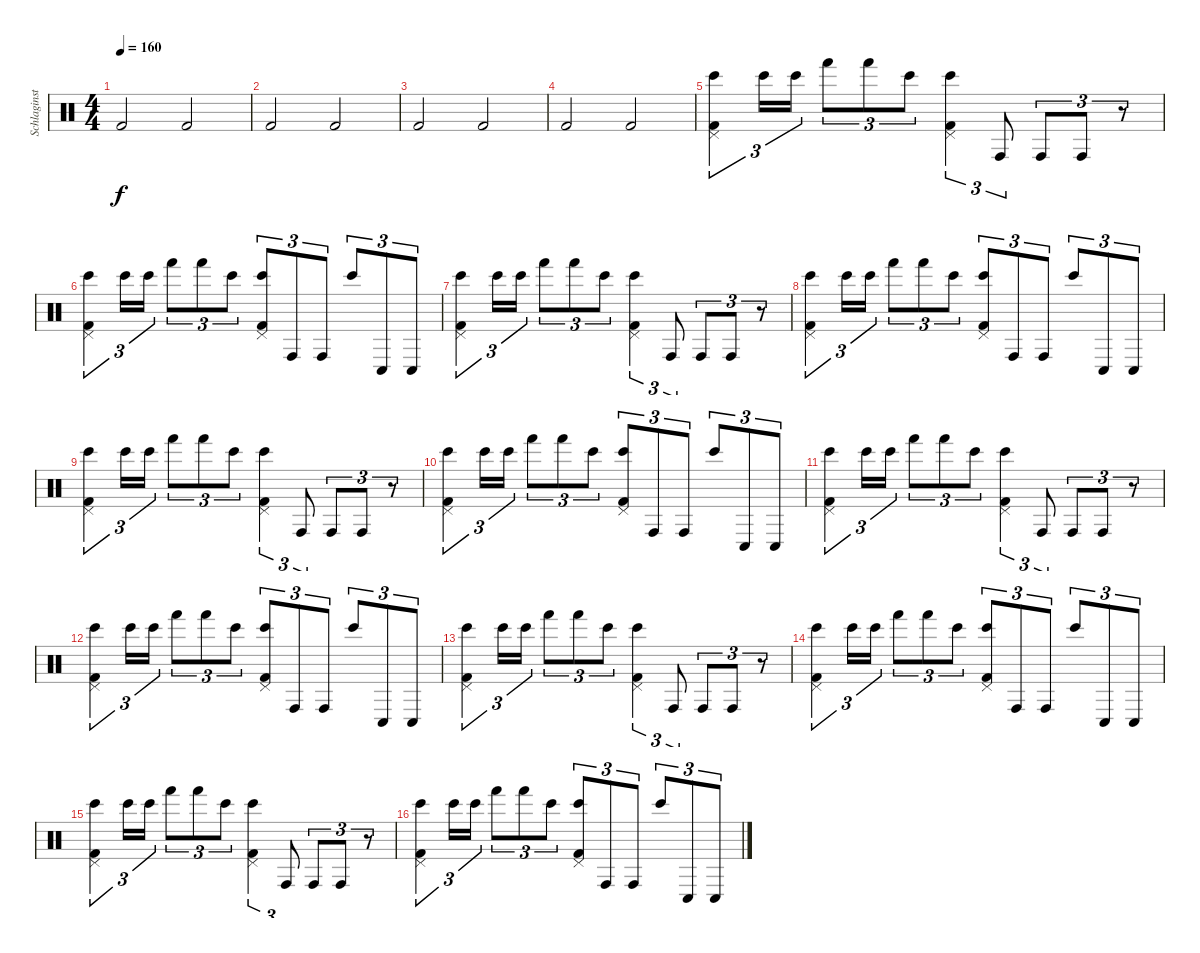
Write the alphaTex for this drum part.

\track ("Schlaginstrumente - Auswahl" "Schlaginst") {instrument percussion}
\staff {score}
\articulation defaults
\ts (4 4)
\tempo 160
\clef neutral
\ks c "Kick (hit) 2".2{dy f} "Kick (hit) 2".2
|
"Kick (hit) 2".2 "Kick (hit) 2".2 |
"Kick (hit) 2".2 "Kick (hit) 2".2 |
"Kick (hit) 2".2 "Kick (hit) 2".2 |
("Pedal Hi-Hat (hit)" "Bongo High (hit)" "Kick (hit) 2").4{tu (3 2)} "Bongo High (hit)".16{tu (3 2)} "Bongo High (hit)".16{tu (3 2)} "Hand (hit)".8{tu (3 2)} "Hand (hit)".8{tu (3 2)} "Bongo High (hit)".8{tu (3 2)} ("Pedal Hi-Hat (hit)" "Bongo High (hit)" "Kick (hit) 2").4{tu (3 2)} "Conga high (hit)".8{tu (3 2)} "Conga high (hit)".8{tu (3 2)} "Conga high (hit)".8{tu (3 2)} r.8{tu (3 2)} |
("Pedal Hi-Hat (hit)" "Bongo High (hit)" "Kick (hit) 2").4{tu (3 2)} "Bongo High (hit)".16{tu (3 2)} "Bongo High (hit)".16{tu (3 2)} "Hand (hit)".8{tu (3 2)} "Hand (hit)".8{tu (3 2)} "Bongo High (hit)".8{tu (3 2)} ("Pedal Hi-Hat (hit)" "Bongo High (hit)" "Kick (hit) 2").8{tu (3 2)} "Conga high (hit)".8{tu (3 2)} "Conga high (hit)".8{tu (3 2)} "Bongo High (hit)".8{tu (3 2)} "Conga low (hit)".8{tu (3 2)} "Conga low (hit)".8{tu (3 2)} |
("Pedal Hi-Hat (hit)" "Bongo High (hit)" "Kick (hit) 2").4{tu (3 2)} "Bongo High (hit)".16{tu (3 2)} "Bongo High (hit)".16{tu (3 2)} "Hand (hit)".8{tu (3 2)} "Hand (hit)".8{tu (3 2)} "Bongo High (hit)".8{tu (3 2)} ("Pedal Hi-Hat (hit)" "Bongo High (hit)" "Kick (hit) 2").4{tu (3 2)} "Conga high (hit)".8{tu (3 2)} "Conga high (hit)".8{tu (3 2)} "Conga high (hit)".8{tu (3 2)} r.8{tu (3 2)} |
("Pedal Hi-Hat (hit)" "Bongo High (hit)" "Kick (hit) 2").4{tu (3 2)} "Bongo High (hit)".16{tu (3 2)} "Bongo High (hit)".16{tu (3 2)} "Hand (hit)".8{tu (3 2)} "Hand (hit)".8{tu (3 2)} "Bongo High (hit)".8{tu (3 2)} ("Pedal Hi-Hat (hit)" "Bongo High (hit)" "Kick (hit) 2").8{tu (3 2)} "Conga high (hit)".8{tu (3 2)} "Conga high (hit)".8{tu (3 2)} "Bongo High (hit)".8{tu (3 2)} "Conga low (hit)".8{tu (3 2)} "Conga low (hit)".8{tu (3 2)} |
("Pedal Hi-Hat (hit)" "Bongo High (hit)" "Kick (hit) 2").4{tu (3 2)} "Bongo High (hit)".16{tu (3 2)} "Bongo High (hit)".16{tu (3 2)} "Hand (hit)".8{tu (3 2)} "Hand (hit)".8{tu (3 2)} "Bongo High (hit)".8{tu (3 2)} ("Pedal Hi-Hat (hit)" "Bongo High (hit)" "Kick (hit) 2").4{tu (3 2)} "Conga high (hit)".8{tu (3 2)} "Conga high (hit)".8{tu (3 2)} "Conga high (hit)".8{tu (3 2)} r.8{tu (3 2)} |
("Pedal Hi-Hat (hit)" "Bongo High (hit)" "Kick (hit) 2").4{tu (3 2)} "Bongo High (hit)".16{tu (3 2)} "Bongo High (hit)".16{tu (3 2)} "Hand (hit)".8{tu (3 2)} "Hand (hit)".8{tu (3 2)} "Bongo High (hit)".8{tu (3 2)} ("Pedal Hi-Hat (hit)" "Bongo High (hit)" "Kick (hit) 2").8{tu (3 2)} "Conga high (hit)".8{tu (3 2)} "Conga high (hit)".8{tu (3 2)} "Bongo High (hit)".8{tu (3 2)} "Conga low (hit)".8{tu (3 2)} "Conga low (hit)".8{tu (3 2)} |
("Pedal Hi-Hat (hit)" "Bongo High (hit)" "Kick (hit) 2").4{tu (3 2)} "Bongo High (hit)".16{tu (3 2)} "Bongo High (hit)".16{tu (3 2)} "Hand (hit)".8{tu (3 2)} "Hand (hit)".8{tu (3 2)} "Bongo High (hit)".8{tu (3 2)} ("Pedal Hi-Hat (hit)" "Bongo High (hit)" "Kick (hit) 2").4{tu (3 2)} "Conga high (hit)".8{tu (3 2)} "Conga high (hit)".8{tu (3 2)} "Conga high (hit)".8{tu (3 2)} r.8{tu (3 2)} |
("Pedal Hi-Hat (hit)" "Bongo High (hit)" "Kick (hit) 2").4{tu (3 2)} "Bongo High (hit)".16{tu (3 2)} "Bongo High (hit)".16{tu (3 2)} "Hand (hit)".8{tu (3 2)} "Hand (hit)".8{tu (3 2)} "Bongo High (hit)".8{tu (3 2)} ("Pedal Hi-Hat (hit)" "Bongo High (hit)" "Kick (hit) 2").8{tu (3 2)} "Conga high (hit)".8{tu (3 2)} "Conga high (hit)".8{tu (3 2)} "Bongo High (hit)".8{tu (3 2)} "Conga low (hit)".8{tu (3 2)} "Conga low (hit)".8{tu (3 2)} |
("Pedal Hi-Hat (hit)" "Bongo High (hit)" "Kick (hit) 2").4{tu (3 2)} "Bongo High (hit)".16{tu (3 2)} "Bongo High (hit)".16{tu (3 2)} "Hand (hit)".8{tu (3 2)} "Hand (hit)".8{tu (3 2)} "Bongo High (hit)".8{tu (3 2)} ("Pedal Hi-Hat (hit)" "Bongo High (hit)" "Kick (hit) 2").4{tu (3 2)} "Conga high (hit)".8{tu (3 2)} "Conga high (hit)".8{tu (3 2)} "Conga high (hit)".8{tu (3 2)} r.8{tu (3 2)} |
("Pedal Hi-Hat (hit)" "Bongo High (hit)" "Kick (hit) 2").4{tu (3 2)} "Bongo High (hit)".16{tu (3 2)} "Bongo High (hit)".16{tu (3 2)} "Hand (hit)".8{tu (3 2)} "Hand (hit)".8{tu (3 2)} "Bongo High (hit)".8{tu (3 2)} ("Pedal Hi-Hat (hit)" "Bongo High (hit)" "Kick (hit) 2").8{tu (3 2)} "Conga high (hit)".8{tu (3 2)} "Conga high (hit)".8{tu (3 2)} "Bongo High (hit)".8{tu (3 2)} "Conga low (hit)".8{tu (3 2)} "Conga low (hit)".8{tu (3 2)} |
("Pedal Hi-Hat (hit)" "Bongo High (hit)" "Kick (hit) 2").4{tu (3 2)} "Bongo High (hit)".16{tu (3 2)} "Bongo High (hit)".16{tu (3 2)} "Hand (hit)".8{tu (3 2)} "Hand (hit)".8{tu (3 2)} "Bongo High (hit)".8{tu (3 2)} ("Pedal Hi-Hat (hit)" "Bongo High (hit)" "Kick (hit) 2").4{tu (3 2)} "Conga high (hit)".8{tu (3 2)} "Conga high (hit)".8{tu (3 2)} "Conga high (hit)".8{tu (3 2)} r.8{tu (3 2)} |
("Pedal Hi-Hat (hit)" "Bongo High (hit)" "Kick (hit) 2").4{tu (3 2)} "Bongo High (hit)".16{tu (3 2)} "Bongo High (hit)".16{tu (3 2)} "Hand (hit)".8{tu (3 2)} "Hand (hit)".8{tu (3 2)} "Bongo High (hit)".8{tu (3 2)} ("Pedal Hi-Hat (hit)" "Bongo High (hit)" "Kick (hit) 2").8{tu (3 2)} "Conga high (hit)".8{tu (3 2)} "Conga high (hit)".8{tu (3 2)} "Bongo High (hit)".8{tu (3 2)} "Conga low (hit)".8{tu (3 2)} "Conga low (hit)".8{tu (3 2)}
